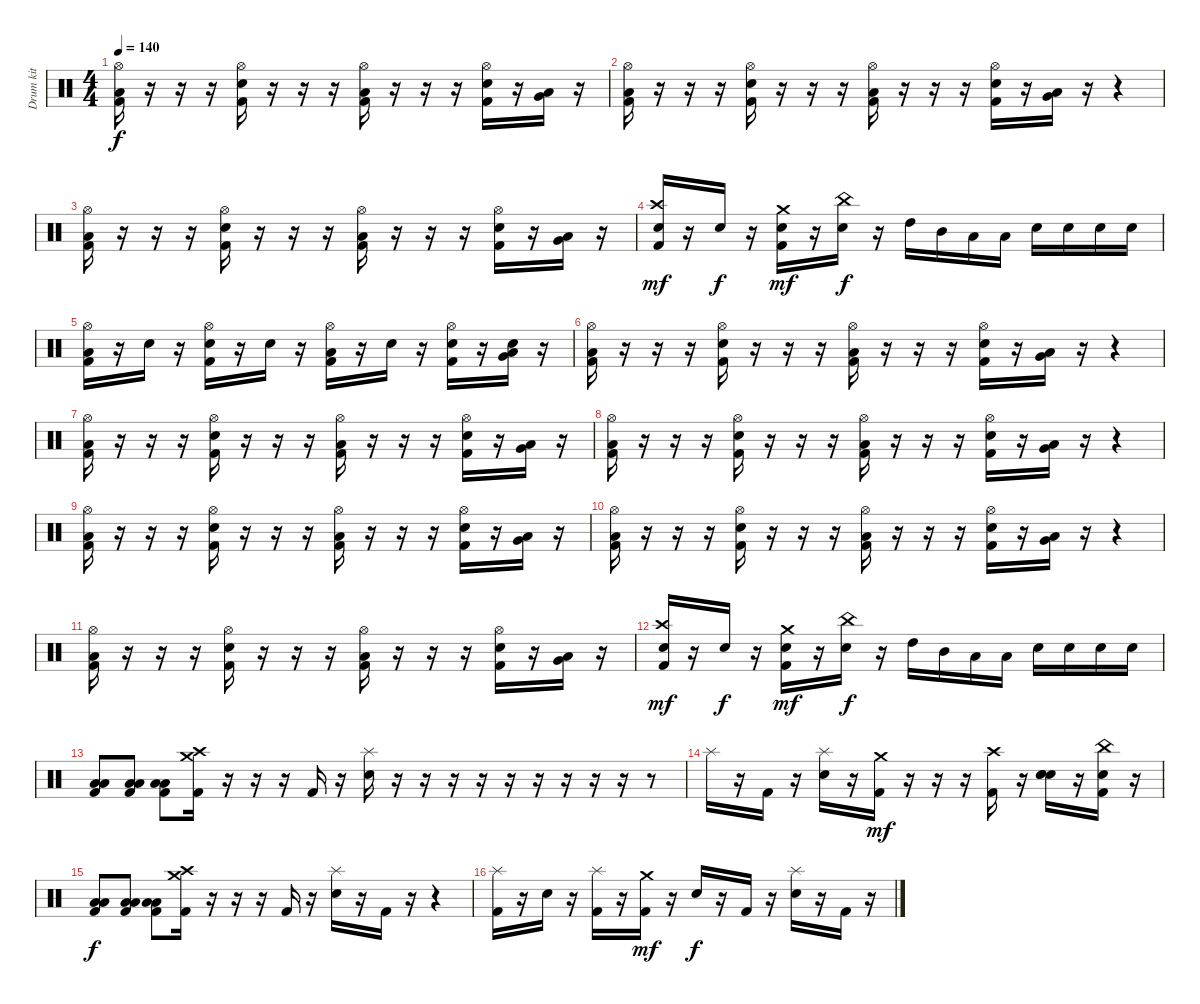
\track ("Drum kit" "Drum kit") {solo instrument percussion}
\staff {score}
\articulation defaults
\ts (4 4)
\tempo 140
\clef neutral
\ks c
("Hi-Hat (open)" "Low Tom (hit)" "Kick (hit) 2").16{dy f} r.16 r.16 r.16 ("Hi-Hat (open)" "Electric Snare (hit)" "Kick (hit) 2").16 r.16 r.16 r.16 ("Hi-Hat (open)" "Low Tom (hit)" "Kick (hit) 2").16 r.16 r.16 r.16 ("Hi-Hat (open)" "Electric Snare (hit)" "Kick (hit) 2").16 r.16 ("Low Tom (hit)" "Very Low Tom (hit)").16 r.16 |
("Hi-Hat (open)" "Low Tom (hit)" "Kick (hit) 2").16 r.16 r.16 r.16 ("Hi-Hat (open)" "Electric Snare (hit)" "Kick (hit) 2").16 r.16 r.16 r.16 ("Hi-Hat (open)" "Low Tom (hit)" "Kick (hit) 2").16 r.16 r.16 r.16 ("Hi-Hat (open)" "Electric Snare (hit)" "Kick (hit) 2").16 r.16 ("Low Tom (hit)" "Very Low Tom (hit)").16 r.16 r.4 |
("Hi-Hat (open)" "Low Tom (hit)" "Kick (hit) 2").16 r.16 r.16 r.16 ("Hi-Hat (open)" "Electric Snare (hit)" "Kick (hit) 2").16 r.16 r.16 r.16 ("Hi-Hat (open)" "Low Tom (hit)" "Kick (hit) 2").16 r.16 r.16 r.16 ("Hi-Hat (open)" "Electric Snare (hit)" "Kick (hit) 2").16 r.16 ("Low Tom (hit)" "Very Low Tom (hit)").16 r.16 |
("Crash high (hit)" "Snare (hit)" "Kick (hit) 2").16{dy mf} r.16 "Electric Snare (hit)".16{dy f} r.16 ("Crash medium (hit)" "Snare (hit)" "Kick (hit) 2").16{dy mf} r.16 ("China (hit)" "Electric Snare (hit)").16{dy f} r.16 "High Tom (hit)".16 "Mid Tom (hit)".16 "Low Tom (hit)".16 "Low Tom (hit)".16 "Electric Snare (hit)".16 "Electric Snare (hit)".16 "Electric Snare (hit)".16 "Electric Snare (hit)".16 |
("Hi-Hat (open)" "Low Tom (hit)" "Kick (hit) 2").16 r.16 "Snare (hit)".16 r.16 ("Hi-Hat (open)" "Electric Snare (hit)" "Kick (hit) 2").16 r.16 "Snare (hit)".16 r.16 ("Hi-Hat (open)" "Low Tom (hit)" "Kick (hit) 2").16 r.16 "Snare (hit)".16 r.16 ("Hi-Hat (open)" "Electric Snare (hit)" "Kick (hit) 2").16 r.16 ("Low Tom (hit)" "Very Low Tom (hit)" "Snare (hit)").16 r.16 |
("Hi-Hat (open)" "Low Tom (hit)" "Kick (hit) 2").16 r.16 r.16 r.16 ("Hi-Hat (open)" "Electric Snare (hit)" "Kick (hit) 2").16 r.16 r.16 r.16 ("Hi-Hat (open)" "Low Tom (hit)" "Kick (hit) 2").16 r.16 r.16 r.16 ("Hi-Hat (open)" "Electric Snare (hit)" "Kick (hit) 2").16 r.16 ("Low Tom (hit)" "Very Low Tom (hit)").16 r.16 r.4 |
("Hi-Hat (open)" "Low Tom (hit)" "Kick (hit) 2").16 r.16 r.16 r.16 ("Hi-Hat (open)" "Electric Snare (hit)" "Kick (hit) 2").16 r.16 r.16 r.16 ("Hi-Hat (open)" "Low Tom (hit)" "Kick (hit) 2").16 r.16 r.16 r.16 ("Hi-Hat (open)" "Electric Snare (hit)" "Kick (hit) 2").16 r.16 ("Low Tom (hit)" "Very Low Tom (hit)").16 r.16 |
("Hi-Hat (open)" "Low Tom (hit)" "Kick (hit) 2").16 r.16 r.16 r.16 ("Hi-Hat (open)" "Electric Snare (hit)" "Kick (hit) 2").16 r.16 r.16 r.16 ("Hi-Hat (open)" "Low Tom (hit)" "Kick (hit) 2").16 r.16 r.16 r.16 ("Hi-Hat (open)" "Electric Snare (hit)" "Kick (hit) 2").16 r.16 ("Low Tom (hit)" "Very Low Tom (hit)").16 r.16 r.4 |
("Hi-Hat (open)" "Low Tom (hit)" "Kick (hit) 2").16 r.16 r.16 r.16 ("Hi-Hat (open)" "Electric Snare (hit)" "Kick (hit) 2").16 r.16 r.16 r.16 ("Hi-Hat (open)" "Low Tom (hit)" "Kick (hit) 2").16 r.16 r.16 r.16 ("Hi-Hat (open)" "Electric Snare (hit)" "Kick (hit) 2").16 r.16 ("Low Tom (hit)" "Very Low Tom (hit)").16 r.16 |
("Hi-Hat (open)" "Low Tom (hit)" "Kick (hit) 2").16 r.16 r.16 r.16 ("Hi-Hat (open)" "Electric Snare (hit)" "Kick (hit) 2").16 r.16 r.16 r.16 ("Hi-Hat (open)" "Low Tom (hit)" "Kick (hit) 2").16 r.16 r.16 r.16 ("Hi-Hat (open)" "Electric Snare (hit)" "Kick (hit) 2").16 r.16 ("Low Tom (hit)" "Very Low Tom (hit)").16 r.16 r.4 |
("Hi-Hat (open)" "Low Tom (hit)" "Kick (hit) 2").16 r.16 r.16 r.16 ("Hi-Hat (open)" "Electric Snare (hit)" "Kick (hit) 2").16 r.16 r.16 r.16 ("Hi-Hat (open)" "Low Tom (hit)" "Kick (hit) 2").16 r.16 r.16 r.16 ("Hi-Hat (open)" "Electric Snare (hit)" "Kick (hit) 2").16 r.16 ("Low Tom (hit)" "Very Low Tom (hit)").16 r.16 |
("Crash high (hit)" "Snare (hit)" "Kick (hit) 2").16{dy mf} r.16 "Electric Snare (hit)".16{dy f} r.16 ("Crash medium (hit)" "Snare (hit)" "Kick (hit) 2").16{dy mf} r.16 ("China (hit)" "Electric Snare (hit)").16{dy f} r.16 "High Tom (hit)".16 "Mid Tom (hit)".16 "Low Tom (hit)".16 "Low Tom (hit)".16 "Electric Snare (hit)".16 "Electric Snare (hit)".16 "Electric Snare (hit)".16 "Electric Snare (hit)".16 |
("Low Tom (hit)" "Low Floor Tom (hit)" "Kick (hit) 2").8 ("Low Tom (hit)" "Low Floor Tom (hit)" "Kick (hit) 2").8 ("Low Tom (hit)" "Low Floor Tom (hit)" "Kick (hit) 2").8 ("Crash medium (hit)" "Crash high (hit)" "Kick (hit) 2").16 r.16 r.16 r.16 "Kick (hit) 2".16 r.16 ("Splash (hit)" "Electric Snare (hit)").16 r.16 r.16 r.16 r.16 r.16 r.16 r.16 r.16 r.16 r.8 |
"Splash (hit)".16 r.16 "Kick (hit) 2".16 r.16 ("Splash (hit)" "Electric Snare (hit)").16 r.16 ("Crash medium (hit)" "Kick (hit) 2").16{dy mf} r.16 r.16 r.16 ("Crash high (hit)" "Kick (hit) 2").16 r.16 ("Snare (hit)" "Electric Snare (hit)" "Snare (hit)").16 r.16 ("China (hit)" "Snare (hit)" "Kick (hit) 2").16 r.16 |
("Low Tom (hit)" "Low Floor Tom (hit)" "Kick (hit) 2").8{dy f} ("Low Tom (hit)" "Low Floor Tom (hit)" "Kick (hit) 2").8 ("Low Tom (hit)" "Low Floor Tom (hit)" "Kick (hit) 2").8 ("Crash medium (hit)" "Crash high (hit)" "Kick (hit) 2").16 r.16 r.16 r.16 "Kick (hit) 2".16 r.16 ("Splash (hit)" "Electric Snare (hit)").16 r.16 "Kick (hit) 2".16 r.16 r.4 |
("Splash (hit)" "Kick (hit) 2").16 r.16 "Electric Snare (hit)".16 r.16 ("Splash (hit)" "Kick (hit) 2").16 r.16 ("Crash medium (hit)" "Kick (hit) 2").16{dy mf} r.16 "Snare (hit)".16{dy f} r.16 "Kick (hit) 2".16 r.16 ("Splash (hit)" "Electric Snare (hit)").16 r.16 "Kick (hit) 2".16 r.16
